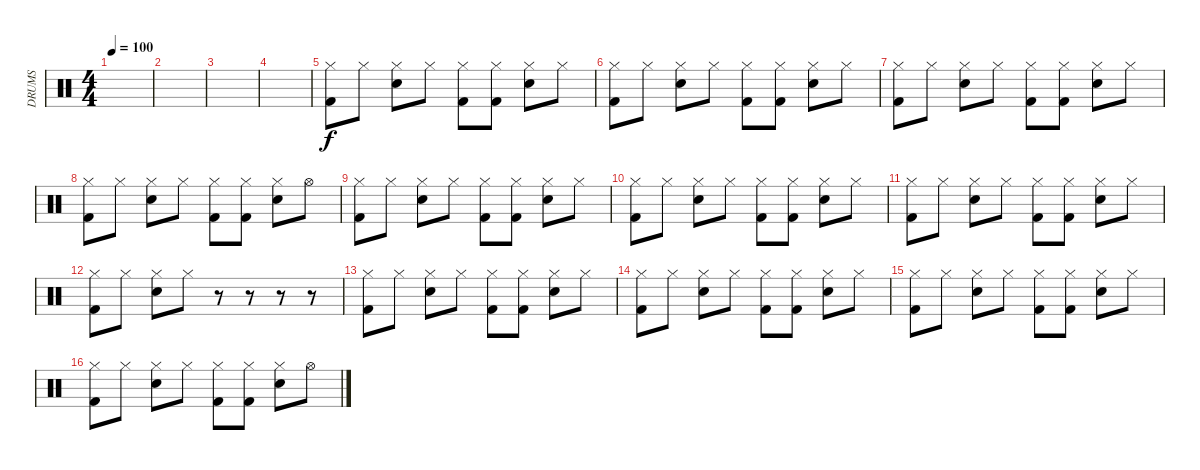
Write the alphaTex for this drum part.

\track ("DRUMS" "DRUMS") {instrument percussion}
\staff {score}
\articulation defaults
\ts (4 4)
\tempo 100
\clef neutral
\ks c
|
|
|
|
("Hi-Hat (closed)" "Kick (hit) 2").8 "Hi-Hat (closed)".8 ("Hi-Hat (closed)" "Snare (hit) 2").8 "Hi-Hat (closed)".8 ("Hi-Hat (closed)" "Kick (hit) 2").8 ("Hi-Hat (closed)" "Kick (hit) 2").8 ("Hi-Hat (closed)" "Snare (hit) 2").8 "Hi-Hat (closed)".8 |
("Hi-Hat (closed)" "Kick (hit) 2").8 "Hi-Hat (closed)".8 ("Hi-Hat (closed)" "Snare (hit) 2").8 "Hi-Hat (closed)".8 ("Hi-Hat (closed)" "Kick (hit) 2").8 ("Hi-Hat (closed)" "Kick (hit) 2").8 ("Hi-Hat (closed)" "Snare (hit) 2").8 "Hi-Hat (closed)".8 |
("Hi-Hat (closed)" "Kick (hit) 2").8 "Hi-Hat (closed)".8 ("Hi-Hat (closed)" "Snare (hit) 2").8 "Hi-Hat (closed)".8 ("Hi-Hat (closed)" "Kick (hit) 2").8 ("Hi-Hat (closed)" "Kick (hit) 2").8 ("Hi-Hat (closed)" "Snare (hit) 2").8 "Hi-Hat (closed)".8 |
("Hi-Hat (closed)" "Kick (hit) 2").8 "Hi-Hat (closed)".8 ("Hi-Hat (closed)" "Snare (hit) 2").8 "Hi-Hat (closed)".8 ("Hi-Hat (closed)" "Kick (hit) 2").8 ("Hi-Hat (closed)" "Kick (hit) 2").8 ("Hi-Hat (closed)" "Snare (hit) 2").8 "Hi-Hat (open)".8 |
("Hi-Hat (closed)" "Kick (hit) 2").8 "Hi-Hat (closed)".8 ("Hi-Hat (closed)" "Snare (hit) 2").8 "Hi-Hat (closed)".8 ("Hi-Hat (closed)" "Kick (hit) 2").8 ("Hi-Hat (closed)" "Kick (hit) 2").8 ("Hi-Hat (closed)" "Snare (hit) 2").8 "Hi-Hat (closed)".8 |
("Hi-Hat (closed)" "Kick (hit) 2").8 "Hi-Hat (closed)".8 ("Hi-Hat (closed)" "Snare (hit) 2").8 "Hi-Hat (closed)".8 ("Hi-Hat (closed)" "Kick (hit) 2").8 ("Hi-Hat (closed)" "Kick (hit) 2").8 ("Hi-Hat (closed)" "Snare (hit) 2").8 "Hi-Hat (closed)".8 |
("Hi-Hat (closed)" "Kick (hit) 2").8 "Hi-Hat (closed)".8 ("Hi-Hat (closed)" "Snare (hit) 2").8 "Hi-Hat (closed)".8 ("Hi-Hat (closed)" "Kick (hit) 2").8 ("Hi-Hat (closed)" "Kick (hit) 2").8 ("Hi-Hat (closed)" "Snare (hit) 2").8 "Hi-Hat (closed)".8 |
("Hi-Hat (closed)" "Kick (hit) 2").8 "Hi-Hat (closed)".8 ("Hi-Hat (closed)" "Snare (hit) 2").8 "Hi-Hat (closed)".8 r.8 r.8 r.8 r.8 |
("Hi-Hat (closed)" "Kick (hit) 2").8 "Hi-Hat (closed)".8 ("Hi-Hat (closed)" "Snare (hit) 2").8 "Hi-Hat (closed)".8 ("Hi-Hat (closed)" "Kick (hit) 2").8 ("Hi-Hat (closed)" "Kick (hit) 2").8 ("Hi-Hat (closed)" "Snare (hit) 2").8 "Hi-Hat (closed)".8 |
("Hi-Hat (closed)" "Kick (hit) 2").8 "Hi-Hat (closed)".8 ("Hi-Hat (closed)" "Snare (hit) 2").8 "Hi-Hat (closed)".8 ("Hi-Hat (closed)" "Kick (hit) 2").8 ("Hi-Hat (closed)" "Kick (hit) 2").8 ("Hi-Hat (closed)" "Snare (hit) 2").8 "Hi-Hat (closed)".8 |
("Hi-Hat (closed)" "Kick (hit) 2").8 "Hi-Hat (closed)".8 ("Hi-Hat (closed)" "Snare (hit) 2").8 "Hi-Hat (closed)".8 ("Hi-Hat (closed)" "Kick (hit) 2").8 ("Hi-Hat (closed)" "Kick (hit) 2").8 ("Hi-Hat (closed)" "Snare (hit) 2").8 "Hi-Hat (closed)".8 |
("Hi-Hat (closed)" "Kick (hit) 2").8 "Hi-Hat (closed)".8 ("Hi-Hat (closed)" "Snare (hit) 2").8 "Hi-Hat (closed)".8 ("Hi-Hat (closed)" "Kick (hit) 2").8 ("Hi-Hat (closed)" "Kick (hit) 2").8 ("Hi-Hat (closed)" "Snare (hit) 2").8 "Hi-Hat (open)".8
